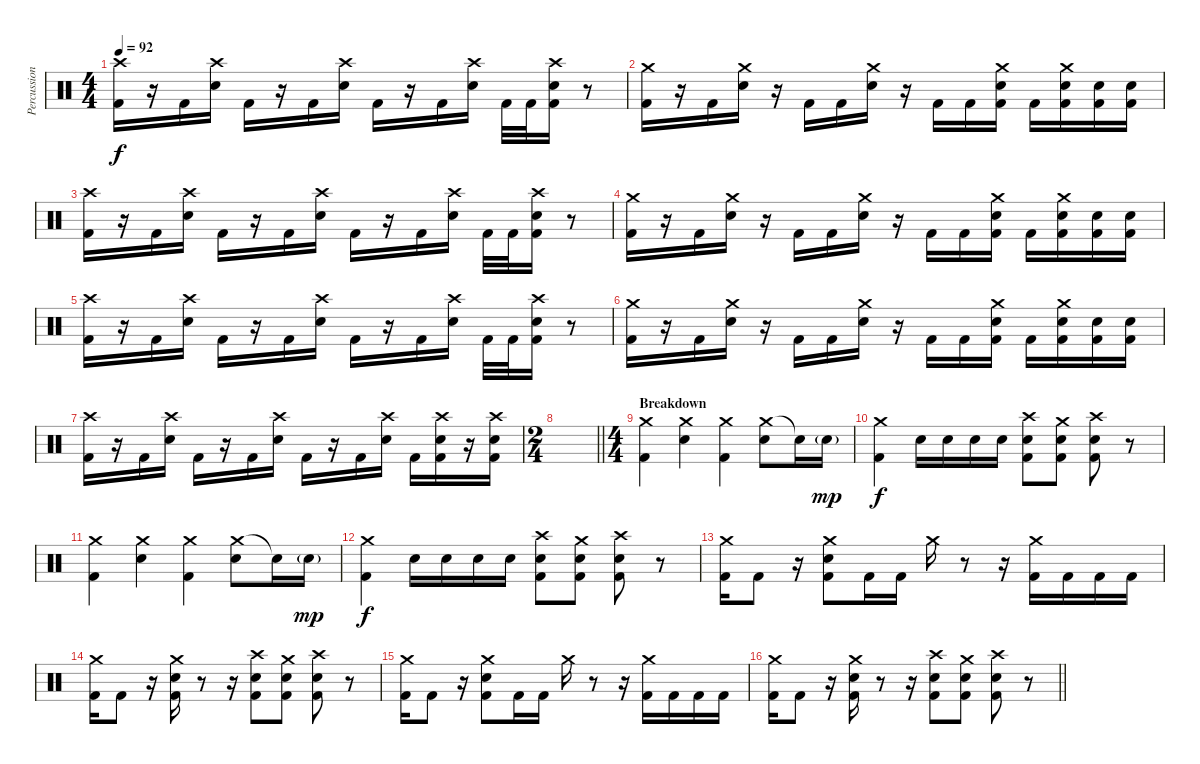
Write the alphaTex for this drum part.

\track ("Percussion" "Percussion") {instrument percussion}
\staff {score}
\articulation defaults
\ts (4 4)
\tempo 92
\clef neutral
\ks c
("Crash high (hit)" "Kick (hit) 2").16{dy f} r.16 "Kick (hit) 2".16 ("Crash high (hit)" "Electric Snare (hit)").16 "Kick (hit) 2".16 r.16 "Kick (hit) 2".16 ("Crash high (hit)" "Electric Snare (hit)").16 "Kick (hit) 2".16 r.16 "Kick (hit) 2".16 ("Crash high (hit)" "Electric Snare (hit)").16 "Kick (hit) 2".32 "Kick (hit) 2".32 ("Crash high (hit)" "Electric Snare (hit)" "Kick (hit) 2").16 r.8 |
("Crash medium (hit)" "Kick (hit) 2").16 r.16 "Kick (hit) 2".16 ("Crash medium (hit)" "Electric Snare (hit)").16 r.16 "Kick (hit) 2".16 "Kick (hit) 2".16 ("Crash medium (hit)" "Electric Snare (hit)").16 r.16 "Kick (hit) 2".16 "Kick (hit) 2".16 ("Crash medium (hit)" "Electric Snare (hit)" "Kick (hit) 2").16 "Kick (hit) 2".16 ("Crash medium (hit)" "Electric Snare (hit)" "Kick (hit) 2").16 ("Electric Snare (hit)" "Kick (hit) 2").16 ("Electric Snare (hit)" "Kick (hit) 2").16 |
("Crash high (hit)" "Kick (hit) 2").16 r.16 "Kick (hit) 2".16 ("Crash high (hit)" "Electric Snare (hit)").16 "Kick (hit) 2".16 r.16 "Kick (hit) 2".16 ("Crash high (hit)" "Electric Snare (hit)").16 "Kick (hit) 2".16 r.16 "Kick (hit) 2".16 ("Crash high (hit)" "Electric Snare (hit)").16 "Kick (hit) 2".32 "Kick (hit) 2".32 ("Crash high (hit)" "Electric Snare (hit)" "Kick (hit) 2").16 r.8 |
("Crash medium (hit)" "Kick (hit) 2").16 r.16 "Kick (hit) 2".16 ("Crash medium (hit)" "Electric Snare (hit)").16 r.16 "Kick (hit) 2".16 "Kick (hit) 2".16 ("Crash medium (hit)" "Electric Snare (hit)").16 r.16 "Kick (hit) 2".16 "Kick (hit) 2".16 ("Crash medium (hit)" "Electric Snare (hit)" "Kick (hit) 2").16 "Kick (hit) 2".16 ("Crash medium (hit)" "Electric Snare (hit)" "Kick (hit) 2").16 ("Electric Snare (hit)" "Kick (hit) 2").16 ("Electric Snare (hit)" "Kick (hit) 2").16 |
("Crash high (hit)" "Kick (hit) 2").16 r.16 "Kick (hit) 2".16 ("Crash high (hit)" "Electric Snare (hit)").16 "Kick (hit) 2".16 r.16 "Kick (hit) 2".16 ("Crash high (hit)" "Electric Snare (hit)").16 "Kick (hit) 2".16 r.16 "Kick (hit) 2".16 ("Crash high (hit)" "Electric Snare (hit)").16 "Kick (hit) 2".32 "Kick (hit) 2".32 ("Crash high (hit)" "Electric Snare (hit)" "Kick (hit) 2").16 r.8 |
("Crash medium (hit)" "Kick (hit) 2").16 r.16 "Kick (hit) 2".16 ("Crash medium (hit)" "Electric Snare (hit)").16 r.16 "Kick (hit) 2".16 "Kick (hit) 2".16 ("Crash medium (hit)" "Electric Snare (hit)").16 r.16 "Kick (hit) 2".16 "Kick (hit) 2".16 ("Crash medium (hit)" "Electric Snare (hit)" "Kick (hit) 2").16 "Kick (hit) 2".16 ("Crash medium (hit)" "Electric Snare (hit)" "Kick (hit) 2").16 ("Electric Snare (hit)" "Kick (hit) 2").16 ("Electric Snare (hit)" "Kick (hit) 2").16 |
("Crash high (hit)" "Kick (hit) 2").16 r.16 "Kick (hit) 2".16 ("Crash high (hit)" "Electric Snare (hit)").16 "Kick (hit) 2".16 r.16 "Kick (hit) 2".16 ("Crash high (hit)" "Electric Snare (hit)").16 "Kick (hit) 2".16 r.16 "Kick (hit) 2".16 ("Crash high (hit)" "Electric Snare (hit)").16 "Kick (hit) 2".16 ("Crash high (hit)" "Electric Snare (hit)" "Kick (hit) 2").16 r.16 ("Crash high (hit)" "Electric Snare (hit)" "Kick (hit) 2").16 |
\ts (2 4)
\barLineRight lightlight
|
\ts (4 4)
\section ("" "Breakdown")
("Crash medium (hit)" "Kick (hit) 2").4 ("Crash medium (hit)" "Electric Snare (hit)").4 ("Crash medium (hit)" "Kick (hit) 2").4 ("Crash medium (hit)" "Electric Snare (hit)").8 "Snare (hit)"{t}.16 "Electric Snare (hit)"{g}.16{dy mp} |
("Crash medium (hit)" "Kick (hit) 2").4{dy f} "Electric Snare (hit)".16 "Electric Snare (hit)".16 "Electric Snare (hit)".16 "Electric Snare (hit)".16 ("Crash high (hit)" "Electric Snare (hit)" "Kick (hit) 2").8 ("Crash medium (hit)" "Electric Snare (hit)" "Kick (hit) 2").8 ("Crash high (hit)" "Electric Snare (hit)" "Kick (hit) 2").8 r.8 |
("Crash medium (hit)" "Kick (hit) 2").4 ("Crash medium (hit)" "Electric Snare (hit)").4 ("Crash medium (hit)" "Kick (hit) 2").4 ("Crash medium (hit)" "Electric Snare (hit)").8 "Snare (hit)"{t}.16 "Electric Snare (hit)"{g}.16{dy mp} |
("Crash medium (hit)" "Kick (hit) 2").4{dy f} "Electric Snare (hit)".16 "Electric Snare (hit)".16 "Electric Snare (hit)".16 "Electric Snare (hit)".16 ("Crash high (hit)" "Electric Snare (hit)" "Kick (hit) 2").8 ("Crash medium (hit)" "Electric Snare (hit)" "Kick (hit) 2").8 ("Crash high (hit)" "Electric Snare (hit)" "Kick (hit) 2").8 r.8 |
("Crash medium (hit)" "Kick (hit) 2").16 "Kick (hit) 2".8 r.16 ("Crash medium (hit)" "Electric Snare (hit)" "Kick (hit) 2").8 "Kick (hit) 2".16 "Kick (hit) 2".16 "Crash medium (hit)".16 r.8 r.16 ("Crash medium (hit)" "Kick (hit) 2").16 "Kick (hit) 2".16 "Kick (hit) 2".16 "Kick (hit) 2".16 |
("Crash medium (hit)" "Kick (hit) 2").16 "Kick (hit) 2".8 r.16 ("Crash medium (hit)" "Electric Snare (hit)" "Kick (hit) 2").16 r.8 r.16 ("Crash high (hit)" "Electric Snare (hit)" "Kick (hit) 2").8 ("Crash medium (hit)" "Electric Snare (hit)" "Kick (hit) 2").8 ("Crash high (hit)" "Electric Snare (hit)" "Kick (hit) 2").8 r.8 |
("Crash medium (hit)" "Kick (hit) 2").16 "Kick (hit) 2".8 r.16 ("Crash medium (hit)" "Electric Snare (hit)" "Kick (hit) 2").8 "Kick (hit) 2".16 "Kick (hit) 2".16 "Crash medium (hit)".16 r.8 r.16 ("Crash medium (hit)" "Kick (hit) 2").16 "Kick (hit) 2".16 "Kick (hit) 2".16 "Kick (hit) 2".16 |
\barLineRight lightlight
("Crash medium (hit)" "Kick (hit) 2").16 "Kick (hit) 2".8 r.16 ("Crash medium (hit)" "Electric Snare (hit)" "Kick (hit) 2").16 r.8 r.16 ("Crash high (hit)" "Electric Snare (hit)" "Kick (hit) 2").8 ("Crash medium (hit)" "Electric Snare (hit)" "Kick (hit) 2").8 ("Crash high (hit)" "Electric Snare (hit)" "Kick (hit) 2").8 r.8
